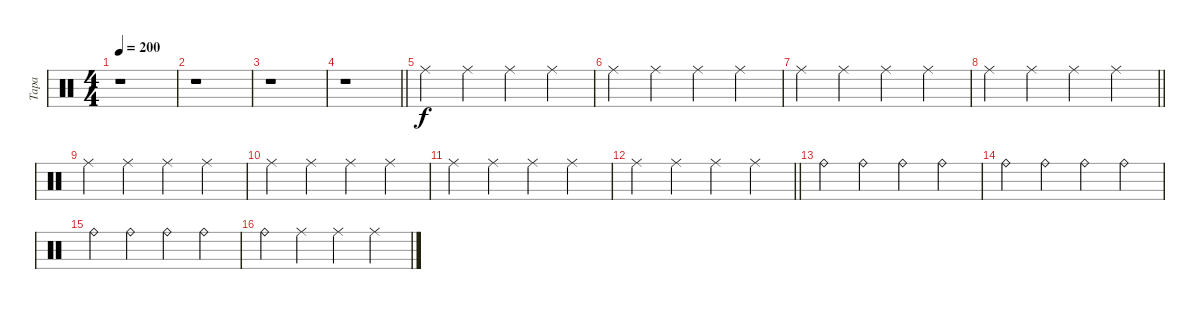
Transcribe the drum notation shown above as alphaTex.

\track ("Tapa" "Tapa") {instrument percussion}
\staff {score}
\articulation defaults
\ts (4 4)
\tempo 200
\clef neutral
\ks c
r.1{dy mf} |
r.1 |
r.1 |
\barLineRight lightlight
r.1 |
"Ride (middle)".4{dy f} "Ride (middle)".4 "Ride (middle)".4 "Ride (middle)".4 |
"Ride (middle)".4 "Ride (middle)".4 "Ride (middle)".4 "Ride (middle)".4 |
"Ride (middle)".4 "Ride (middle)".4 "Ride (middle)".4 "Ride (middle)".4 |
\barLineRight lightlight "Ride (middle)".4 "Ride (middle)".4 "Ride (middle)".4 "Ride (middle)".4
|
"Ride (middle)".4 "Ride (middle)".4 "Ride (middle)".4 "Ride (middle)".4 |
"Ride (middle)".4 "Ride (middle)".4 "Ride (middle)".4 "Ride (middle)".4 |
"Ride (middle)".4 "Ride (middle)".4 "Ride (middle)".4 "Ride (middle)".4 |
\barLineRight lightlight "Ride (middle)".4 "Ride (middle)".4 "Ride (middle)".4 "Ride (middle)".4
|
"Ride (bell)".4 "Ride (bell)".4 "Ride (bell)".4 "Ride (bell)".4 |
"Ride (bell)".4 "Ride (bell)".4 "Ride (bell)".4 "Ride (bell)".4 |
"Ride (bell)".4 "Ride (bell)".4 "Ride (bell)".4 "Ride (bell)".4 |
"Ride (bell)".4 "Ride (middle)".4 "Ride (middle)".4 "Ride (middle)".4
